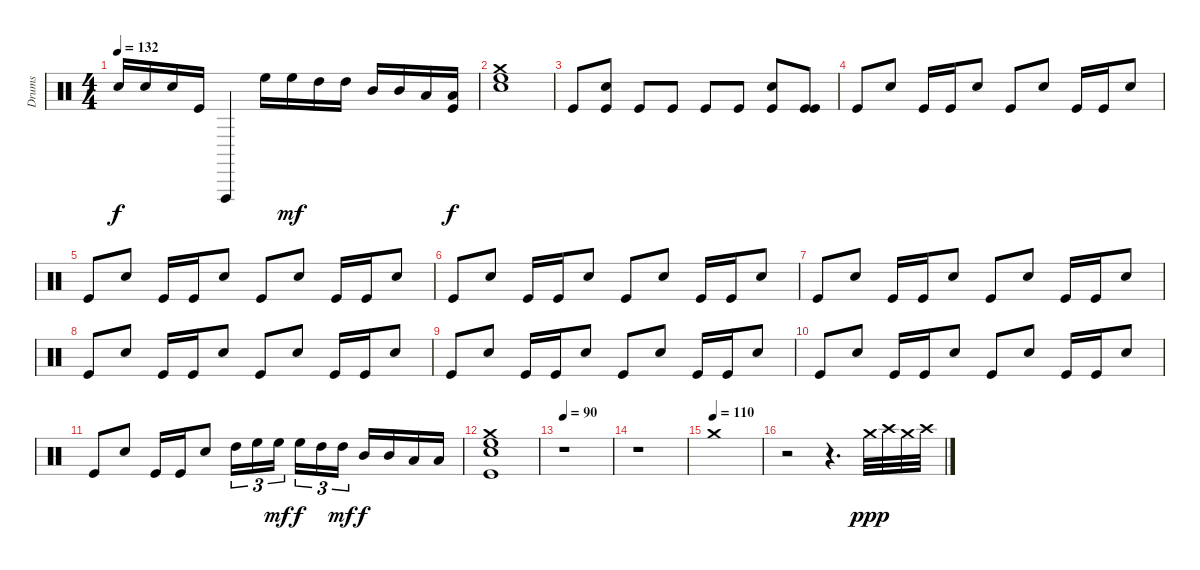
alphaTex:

\track ("Drums" "Drums") {instrument percussion}
\staff {score}
\articulation defaults
\ts (4 4)
\tempo 132
\clef neutral
\ks c "Electric Snare (hit)".16{dy f} "Electric Snare (hit)".16 "Electric Snare (hit)".16 "Kick (hit)".16 "Vibraslap (hit)".4 "High Floor Tom (hit)".16 "High Floor Tom (hit)".16{dy mf} "High Tom (hit)".16 "High Tom (hit)".16 "Mid Tom (hit)".16 "Mid Tom (hit)".16 "Low Tom (hit)".16
("Low Tom (hit)" "Kick (hit)").16{dy f} |
("Crash medium (hit)" "Electric Snare (hit)" "High Floor Tom (hit)").1 |
"Kick (hit)".8 ("Kick (hit)" "Electric Snare (hit)").8 "Kick (hit)".8 "Kick (hit)".8 "Kick (hit)".8 "Kick (hit)".8 ("Kick (hit)" "Electric Snare (hit)").8 ("Kick (hit)" "Kick (hit)").8 |
"Kick (hit)".8 "Electric Snare (hit)".8 "Kick (hit)".16 "Kick (hit)".16 "Electric Snare (hit)".8 "Kick (hit)".8 "Electric Snare (hit)".8 "Kick (hit)".16 "Kick (hit)".16 "Electric Snare (hit)".8 |
"Kick (hit)".8 "Electric Snare (hit)".8 "Kick (hit)".16 "Kick (hit)".16 "Electric Snare (hit)".8 "Kick (hit)".8 "Electric Snare (hit)".8 "Kick (hit)".16 "Kick (hit)".16 "Electric Snare (hit)".8 |
"Kick (hit)".8 "Electric Snare (hit)".8 "Kick (hit)".16 "Kick (hit)".16 "Electric Snare (hit)".8 "Kick (hit)".8 "Electric Snare (hit)".8 "Kick (hit)".16 "Kick (hit)".16 "Electric Snare (hit)".8 |
"Kick (hit)".8 "Electric Snare (hit)".8 "Kick (hit)".16 "Kick (hit)".16 "Electric Snare (hit)".8 "Kick (hit)".8 "Electric Snare (hit)".8 "Kick (hit)".16 "Kick (hit)".16 "Electric Snare (hit)".8 |
"Kick (hit)".8 "Electric Snare (hit)".8 "Kick (hit)".16 "Kick (hit)".16 "Electric Snare (hit)".8 "Kick (hit)".8 "Electric Snare (hit)".8 "Kick (hit)".16 "Kick (hit)".16 "Electric Snare (hit)".8 |
"Kick (hit)".8 "Electric Snare (hit)".8 "Kick (hit)".16 "Kick (hit)".16 "Electric Snare (hit)".8 "Kick (hit)".8 "Electric Snare (hit)".8 "Kick (hit)".16 "Kick (hit)".16 "Electric Snare (hit)".8 |
"Kick (hit)".8 "Electric Snare (hit)".8 "Kick (hit)".16 "Kick (hit)".16 "Electric Snare (hit)".8 "Kick (hit)".8 "Electric Snare (hit)".8 "Kick (hit)".16 "Kick (hit)".16 "Electric Snare (hit)".8 |
"Kick (hit)".8 "Electric Snare (hit)".8 "Kick (hit)".16 "Kick (hit)".16 "Electric Snare (hit)".8 "High Tom (hit)".16{tu (3 2)} "High Floor Tom (hit)".16{tu (3 2)} "High Floor Tom (hit)".16{tu (3 2) dy mf} "High Floor Tom (hit)".16{tu (3 2) dy f} "High Tom (hit)".16{tu (3 2)} "High Tom (hit)".16{tu (3 2) dy mf} "Mid Tom (hit)".16{dy f} "Mid Tom (hit)".16 "Low Tom (hit)".16 "Low Tom (hit)".16 |
("Crash medium (hit)" "Kick (hit)" "High Floor Tom (hit)" "Electric Snare (hit)").1 |
\tempo 90
r.1 |
r.1 |
\tempo (110)
"Crash medium (hit)".1 |
r.2 r.4{d} "Crash medium (hit)".32{dy ppp} "Crash high (hit)".32 "Crash medium (hit)".32 "Crash high (hit)".32
